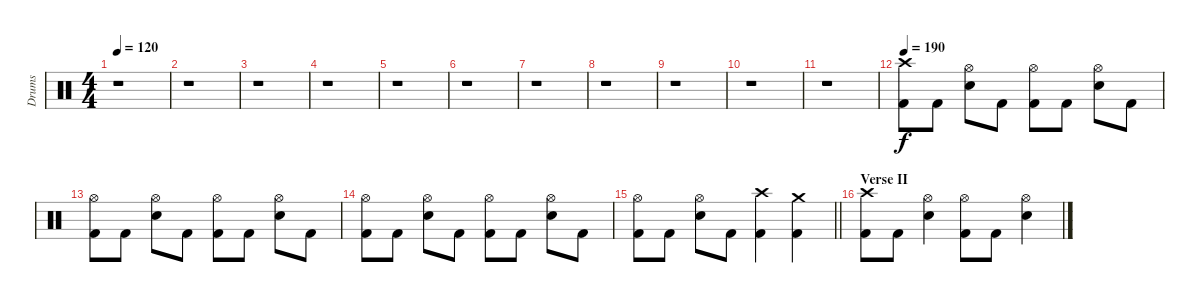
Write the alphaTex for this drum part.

\track ("Drums" "Drums") {instrument percussion}
\staff {score}
\articulation defaults
\ts (4 4)
\tempo 120
\clef neutral
\ks c
r.1{dy f} |
r.1 |
r.1 |
r.1 |
r.1 |
r.1 |
r.1 |
r.1 |
r.1 |
r.1 |
r.1 |
\tempo 190
("Crash high (hit)" "Kick (hit) 2").8 "Kick (hit) 2".8 ("Hi-Hat (open)" "Snare (hit) 2").8 "Kick (hit) 2".8 ("Hi-Hat (open)" "Kick (hit) 2").8 "Kick (hit) 2".8 ("Hi-Hat (open)" "Snare (hit) 2").8 "Kick (hit) 2".8 |
("Hi-Hat (open)" "Kick (hit) 2").8 "Kick (hit) 2".8 ("Hi-Hat (open)" "Snare (hit) 2").8 "Kick (hit) 2".8 ("Hi-Hat (open)" "Kick (hit) 2").8 "Kick (hit) 2".8 ("Hi-Hat (open)" "Snare (hit) 2").8 "Kick (hit) 2".8 |
("Hi-Hat (open)" "Kick (hit) 2").8 "Kick (hit) 2".8 ("Hi-Hat (open)" "Snare (hit) 2").8 "Kick (hit) 2".8 ("Hi-Hat (open)" "Kick (hit) 2").8 "Kick (hit) 2".8 ("Hi-Hat (open)" "Snare (hit) 2").8 "Kick (hit) 2".8 |
\barLineRight lightlight
("Hi-Hat (open)" "Kick (hit) 2").8 "Kick (hit) 2".8 ("Hi-Hat (open)" "Snare (hit) 2").8 "Kick (hit) 2".8 ("Crash high (hit)" "Kick (hit) 2").4 ("Crash medium (hit)" "Kick (hit) 2").4 |
\section ("" "Verse II")
("Crash high (hit)" "Kick (hit) 2").8 "Kick (hit) 2".8 ("Hi-Hat (open)" "Snare (hit) 2").4 ("Hi-Hat (open)" "Kick (hit) 2").8 "Kick (hit) 2".8 ("Hi-Hat (open)" "Snare (hit) 2").4
